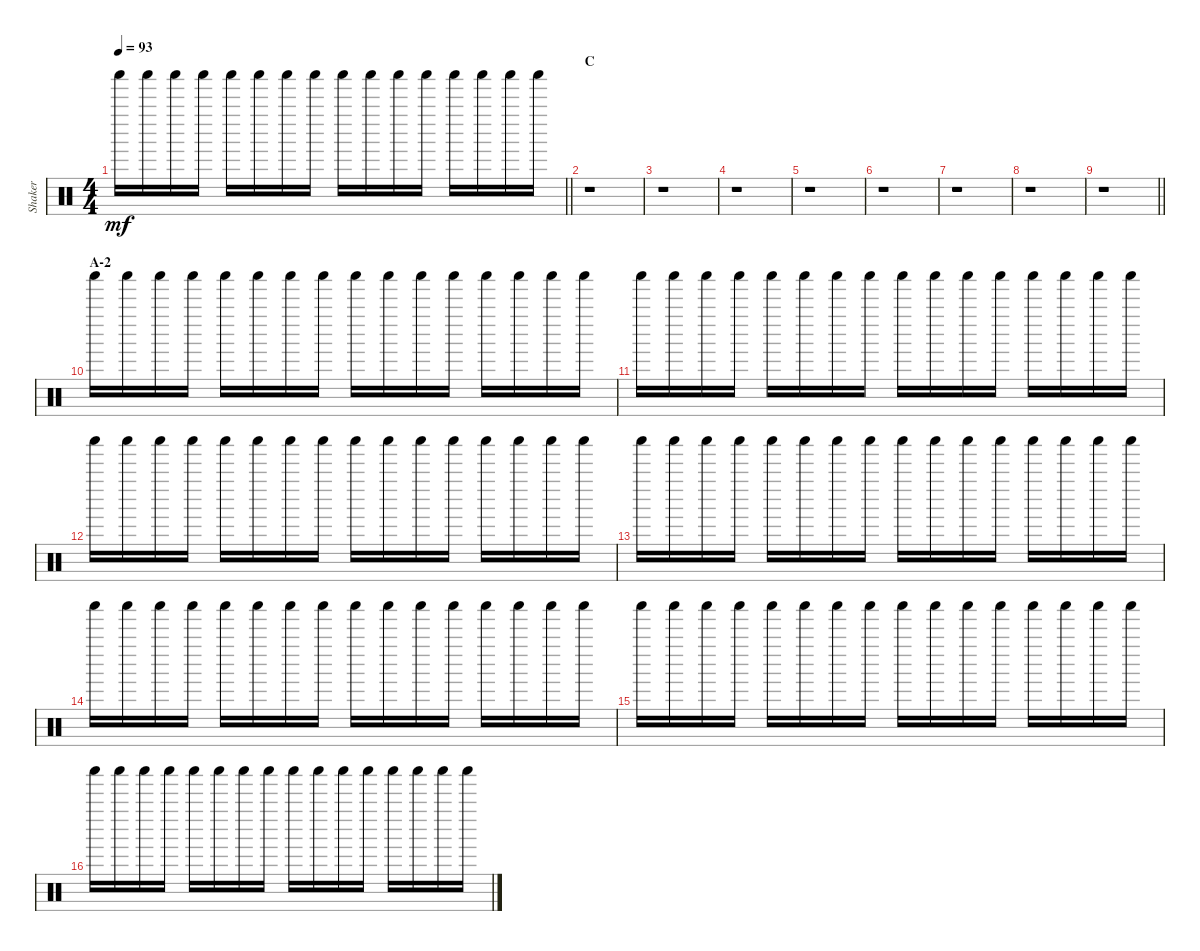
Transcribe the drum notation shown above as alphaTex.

\track ("Shaker" "Shaker") {instrument percussion}
\staff {score}
\articulation defaults
\ts (4 4)
\tempo 93
\clef neutral
\barLineRight lightlight
\ks c "Shaker (hit)".16{dy mf} "Shaker (hit)".16 "Shaker (hit)".16 "Shaker (hit)".16 "Shaker (hit)".16 "Shaker (hit)".16 "Shaker (hit)".16 "Shaker (hit)".16 "Shaker (hit)".16 "Shaker (hit)".16 "Shaker (hit)".16 "Shaker (hit)".16 "Shaker (hit)".16 "Shaker (hit)".16 "Shaker (hit)".16 "Shaker (hit)".16
|
\section ("" "C")
r.1 |
r.1 |
r.1 |
r.1 |
r.1 |
r.1 |
r.1 |
\barLineRight lightlight
r.1 |
\section ("" "A-2")
"Shaker (hit)".16 "Shaker (hit)".16 "Shaker (hit)".16 "Shaker (hit)".16 "Shaker (hit)".16 "Shaker (hit)".16 "Shaker (hit)".16 "Shaker (hit)".16 "Shaker (hit)".16 "Shaker (hit)".16 "Shaker (hit)".16 "Shaker (hit)".16 "Shaker (hit)".16 "Shaker (hit)".16 "Shaker (hit)".16 "Shaker (hit)".16 |
"Shaker (hit)".16 "Shaker (hit)".16 "Shaker (hit)".16 "Shaker (hit)".16 "Shaker (hit)".16 "Shaker (hit)".16 "Shaker (hit)".16 "Shaker (hit)".16 "Shaker (hit)".16 "Shaker (hit)".16 "Shaker (hit)".16 "Shaker (hit)".16 "Shaker (hit)".16 "Shaker (hit)".16 "Shaker (hit)".16 "Shaker (hit)".16 |
"Shaker (hit)".16 "Shaker (hit)".16 "Shaker (hit)".16 "Shaker (hit)".16 "Shaker (hit)".16 "Shaker (hit)".16 "Shaker (hit)".16 "Shaker (hit)".16 "Shaker (hit)".16 "Shaker (hit)".16 "Shaker (hit)".16 "Shaker (hit)".16 "Shaker (hit)".16 "Shaker (hit)".16 "Shaker (hit)".16 "Shaker (hit)".16 |
"Shaker (hit)".16 "Shaker (hit)".16 "Shaker (hit)".16 "Shaker (hit)".16 "Shaker (hit)".16 "Shaker (hit)".16 "Shaker (hit)".16 "Shaker (hit)".16 "Shaker (hit)".16 "Shaker (hit)".16 "Shaker (hit)".16 "Shaker (hit)".16 "Shaker (hit)".16 "Shaker (hit)".16 "Shaker (hit)".16 "Shaker (hit)".16 |
"Shaker (hit)".16 "Shaker (hit)".16 "Shaker (hit)".16 "Shaker (hit)".16 "Shaker (hit)".16 "Shaker (hit)".16 "Shaker (hit)".16 "Shaker (hit)".16 "Shaker (hit)".16 "Shaker (hit)".16 "Shaker (hit)".16 "Shaker (hit)".16 "Shaker (hit)".16 "Shaker (hit)".16 "Shaker (hit)".16 "Shaker (hit)".16 |
"Shaker (hit)".16 "Shaker (hit)".16 "Shaker (hit)".16 "Shaker (hit)".16 "Shaker (hit)".16 "Shaker (hit)".16 "Shaker (hit)".16 "Shaker (hit)".16 "Shaker (hit)".16 "Shaker (hit)".16 "Shaker (hit)".16 "Shaker (hit)".16 "Shaker (hit)".16 "Shaker (hit)".16 "Shaker (hit)".16 "Shaker (hit)".16 |
"Shaker (hit)".16 "Shaker (hit)".16 "Shaker (hit)".16 "Shaker (hit)".16 "Shaker (hit)".16 "Shaker (hit)".16 "Shaker (hit)".16 "Shaker (hit)".16 "Shaker (hit)".16 "Shaker (hit)".16 "Shaker (hit)".16 "Shaker (hit)".16 "Shaker (hit)".16 "Shaker (hit)".16 "Shaker (hit)".16 "Shaker (hit)".16
